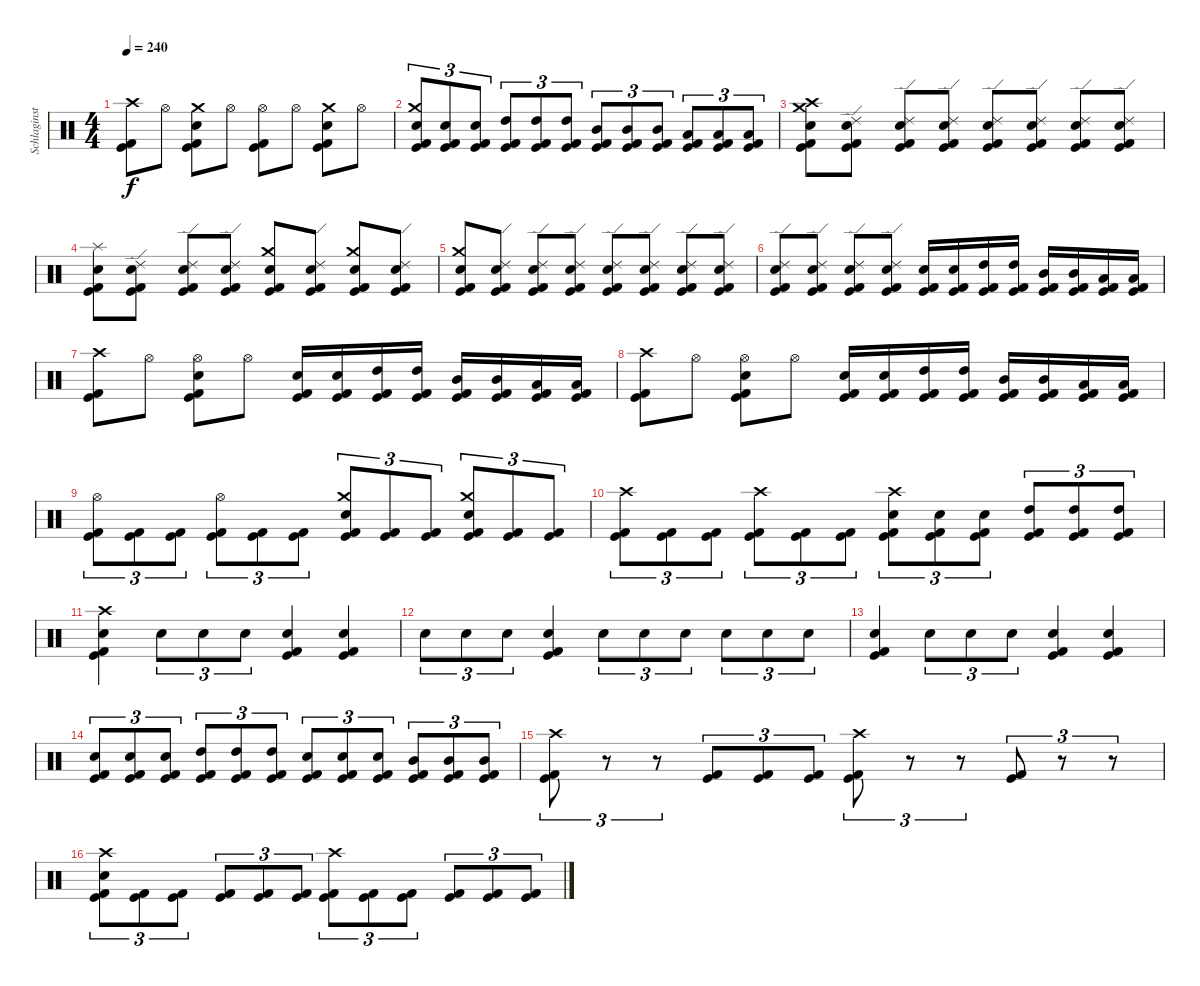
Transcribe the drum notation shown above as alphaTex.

\track ("Schlaginstrumente - Auswahl" "Schlaginst") {instrument percussion}
\staff {score}
\articulation defaults
\ts (4 4)
\tempo 240
\clef neutral
\ks c
("Crash high (hit)" "Kick (hit)" "Kick (hit) 2").8{dy f} "Hi-Hat (open)".8 ("Crash medium (hit)" "Electric Snare (hit)" "Kick (hit)" "Kick (hit) 2").8 "Hi-Hat (open)".8 ("Hi-Hat (open)" "Kick (hit)" "Kick (hit) 2").8 "Hi-Hat (open)".8 ("Crash medium (hit)" "Electric Snare (hit)" "Kick (hit)" "Kick (hit) 2").8 "Hi-Hat (open)".8 |
("Crash medium (hit)" "Electric Snare (hit)" "Kick (hit)" "Kick (hit) 2").8{tu (3 2)} ("Electric Snare (hit)" "Kick (hit)" "Kick (hit) 2").8{tu (3 2)} ("Electric Snare (hit)" "Kick (hit)" "Kick (hit) 2").8{tu (3 2)} ("High Tom (hit)" "Kick (hit)" "Kick (hit) 2").8{tu (3 2)} ("High Tom (hit)" "Kick (hit)" "Kick (hit) 2").8{tu (3 2)} ("High Tom (hit)" "Kick (hit)" "Kick (hit) 2").8{tu (3 2)} ("Mid Tom (hit)" "Kick (hit)" "Kick (hit) 2").8{tu (3 2)} ("Mid Tom (hit)" "Kick (hit)" "Kick (hit) 2").8{tu (3 2)} ("Mid Tom (hit)" "Kick (hit)" "Kick (hit) 2").8{tu (3 2)} ("Low Tom (hit)" "Kick (hit)" "Kick (hit) 2").8{tu (3 2)} ("Low Tom (hit)" "Kick (hit)" "Kick (hit) 2").8{tu (3 2)} ("Low Tom (hit)" "Kick (hit)" "Kick (hit) 2").8{tu (3 2)} |
("Crash medium (hit)" "Crash high (hit)" "Electric Snare (hit)" "Kick (hit)" "Kick (hit) 2").8 ("Ride (edge) 2" "Electric Snare (hit)" "Kick (hit)" "Kick (hit) 2").8 ("Ride (edge) 2" "Electric Snare (hit)" "Kick (hit)" "Kick (hit) 2").8 ("Ride (edge) 2" "Electric Snare (hit)" "Kick (hit)" "Kick (hit) 2").8 ("Ride (edge) 2" "Electric Snare (hit)" "Kick (hit)" "Kick (hit) 2").8 ("Ride (edge) 2" "Electric Snare (hit)" "Kick (hit)" "Kick (hit) 2").8 ("Ride (edge) 2" "Electric Snare (hit)" "Kick (hit)" "Kick (hit) 2").8 ("Ride (edge) 2" "Electric Snare (hit)" "Kick (hit)" "Kick (hit) 2").8 |
("Splash (hit)" "Electric Snare (hit)" "Kick (hit)" "Kick (hit) 2").8 ("Ride (edge) 2" "Electric Snare (hit)" "Kick (hit)" "Kick (hit) 2").8 ("Ride (edge) 2" "Electric Snare (hit)" "Kick (hit)" "Kick (hit) 2").8 ("Ride (edge) 2" "Electric Snare (hit)" "Kick (hit)" "Kick (hit) 2").8 ("Crash medium (hit)" "Electric Snare (hit)" "Kick (hit)" "Kick (hit) 2").8 ("Ride (edge) 2" "Electric Snare (hit)" "Kick (hit)" "Kick (hit) 2").8 ("Crash medium (hit)" "Electric Snare (hit)" "Kick (hit)" "Kick (hit) 2").8 ("Ride (edge) 2" "Electric Snare (hit)" "Kick (hit)" "Kick (hit) 2").8 |
("Crash medium (hit)" "Electric Snare (hit)" "Kick (hit)" "Kick (hit) 2").8 ("Ride (edge) 2" "Electric Snare (hit)" "Kick (hit)" "Kick (hit) 2").8 ("Ride (edge) 2" "Electric Snare (hit)" "Kick (hit)" "Kick (hit) 2").8 ("Ride (edge) 2" "Electric Snare (hit)" "Kick (hit)" "Kick (hit) 2").8 ("Ride (edge) 2" "Electric Snare (hit)" "Kick (hit)" "Kick (hit) 2").8 ("Ride (edge) 2" "Electric Snare (hit)" "Kick (hit)" "Kick (hit) 2").8 ("Ride (edge) 2" "Electric Snare (hit)" "Kick (hit)" "Kick (hit) 2").8 ("Ride (edge) 2" "Electric Snare (hit)" "Kick (hit)" "Kick (hit) 2").8 |
("Ride (edge) 2" "Electric Snare (hit)" "Kick (hit)" "Kick (hit) 2").8 ("Ride (edge) 2" "Electric Snare (hit)" "Kick (hit)" "Kick (hit) 2").8 ("Ride (edge) 2" "Electric Snare (hit)" "Kick (hit)" "Kick (hit) 2").8 ("Ride (edge) 2" "Electric Snare (hit)" "Kick (hit)" "Kick (hit) 2").8 ("Electric Snare (hit)" "Kick (hit)" "Kick (hit) 2").16 ("Electric Snare (hit)" "Kick (hit)" "Kick (hit) 2").16 ("High Tom (hit)" "Kick (hit)" "Kick (hit) 2").16 ("High Tom (hit)" "Kick (hit)" "Kick (hit) 2").16 ("Mid Tom (hit)" "Kick (hit)" "Kick (hit) 2").16 ("Mid Tom (hit)" "Kick (hit)" "Kick (hit) 2").16 ("Low Tom (hit)" "Kick (hit)" "Kick (hit) 2").16 ("Low Tom (hit)" "Kick (hit)" "Kick (hit) 2").16 |
("Crash high (hit)" "Kick (hit)" "Kick (hit) 2").8 "Hi-Hat (open)".8 ("Hi-Hat (open)" "Electric Snare (hit)" "Kick (hit)" "Kick (hit) 2").8 "Hi-Hat (open)".8 ("Electric Snare (hit)" "Kick (hit)" "Kick (hit) 2").16 ("Electric Snare (hit)" "Kick (hit)" "Kick (hit) 2").16 ("High Tom (hit)" "Kick (hit)" "Kick (hit) 2").16 ("High Tom (hit)" "Kick (hit)" "Kick (hit) 2").16 ("Mid Tom (hit)" "Kick (hit)" "Kick (hit) 2").16 ("Mid Tom (hit)" "Kick (hit)" "Kick (hit) 2").16 ("Low Tom (hit)" "Kick (hit)" "Kick (hit) 2").16 ("Low Tom (hit)" "Kick (hit)" "Kick (hit) 2").16 |
("Crash high (hit)" "Kick (hit)" "Kick (hit) 2").8 "Hi-Hat (open)".8 ("Hi-Hat (open)" "Electric Snare (hit)" "Kick (hit)" "Kick (hit) 2").8 "Hi-Hat (open)".8 ("Electric Snare (hit)" "Kick (hit)" "Kick (hit) 2").16 ("Electric Snare (hit)" "Kick (hit)" "Kick (hit) 2").16 ("High Tom (hit)" "Kick (hit)" "Kick (hit) 2").16 ("High Tom (hit)" "Kick (hit)" "Kick (hit) 2").16 ("Mid Tom (hit)" "Kick (hit)" "Kick (hit) 2").16 ("Mid Tom (hit)" "Kick (hit)" "Kick (hit) 2").16 ("Low Tom (hit)" "Kick (hit)" "Kick (hit) 2").16 ("Low Tom (hit)" "Kick (hit)" "Kick (hit) 2").16 |
("Hi-Hat (open)" "Kick (hit)" "Kick (hit) 2").8{tu (3 2)} ("Kick (hit)" "Kick (hit) 2").8{tu (3 2)} ("Kick (hit)" "Kick (hit) 2").8{tu (3 2)} ("Hi-Hat (open)" "Kick (hit)" "Kick (hit) 2").8{tu (3 2)} ("Kick (hit)" "Kick (hit) 2").8{tu (3 2)} ("Kick (hit)" "Kick (hit) 2").8{tu (3 2)} ("Crash medium (hit)" "Electric Snare (hit)" "Kick (hit)" "Kick (hit) 2").8{tu (3 2)} ("Kick (hit)" "Kick (hit) 2").8{tu (3 2)} ("Kick (hit)" "Kick (hit) 2").8{tu (3 2)} ("Crash medium (hit)" "Electric Snare (hit)" "Kick (hit)" "Kick (hit) 2").8{tu (3 2)} ("Kick (hit)" "Kick (hit) 2").8{tu (3 2)} ("Kick (hit)" "Kick (hit) 2").8{tu (3 2)} |
("Crash high (hit)" "Kick (hit)" "Kick (hit) 2").8{tu (3 2)} ("Kick (hit)" "Kick (hit) 2").8{tu (3 2)} ("Kick (hit)" "Kick (hit) 2").8{tu (3 2)} ("Crash high (hit)" "Kick (hit)" "Kick (hit) 2").8{tu (3 2)} ("Kick (hit)" "Kick (hit) 2").8{tu (3 2)} ("Kick (hit)" "Kick (hit) 2").8{tu (3 2)} ("Crash high (hit)" "Electric Snare (hit)" "Kick (hit)" "Kick (hit) 2").8{tu (3 2)} ("Electric Snare (hit)" "Kick (hit)" "Kick (hit) 2").8{tu (3 2)} ("Electric Snare (hit)" "Kick (hit)" "Kick (hit) 2").8{tu (3 2)} ("High Tom (hit)" "Kick (hit)" "Kick (hit) 2").8{tu (3 2)} ("High Tom (hit)" "Kick (hit)" "Kick (hit) 2").8{tu (3 2)} ("High Tom (hit)" "Kick (hit)" "Kick (hit) 2").8{tu (3 2)} |
("Crash high (hit)" "Electric Snare (hit)" "Kick (hit)" "Kick (hit) 2").4 "Electric Snare (hit)".8{tu (3 2)} "Electric Snare (hit)".8{tu (3 2)} "Electric Snare (hit)".8{tu (3 2)} ("Electric Snare (hit)" "Kick (hit)" "Kick (hit) 2").4 ("Electric Snare (hit)" "Kick (hit)" "Kick (hit) 2").4 |
"Electric Snare (hit)".8{tu (3 2)} "Electric Snare (hit)".8{tu (3 2)} "Electric Snare (hit)".8{tu (3 2)} ("Electric Snare (hit)" "Kick (hit)" "Kick (hit) 2").4 "Electric Snare (hit)".8{tu (3 2)} "Electric Snare (hit)".8{tu (3 2)} "Electric Snare (hit)".8{tu (3 2)} "Electric Snare (hit)".8{tu (3 2)} "Electric Snare (hit)".8{tu (3 2)} "Electric Snare (hit)".8{tu (3 2)} |
("Electric Snare (hit)" "Kick (hit)" "Kick (hit) 2").4 "Electric Snare (hit)".8{tu (3 2)} "Electric Snare (hit)".8{tu (3 2)} "Electric Snare (hit)".8{tu (3 2)} ("Electric Snare (hit)" "Kick (hit)" "Kick (hit) 2").4 ("Electric Snare (hit)" "Kick (hit)" "Kick (hit) 2").4 |
("Electric Snare (hit)" "Kick (hit)" "Kick (hit) 2").8{tu (3 2)} ("Electric Snare (hit)" "Kick (hit)" "Kick (hit) 2").8{tu (3 2)} ("Electric Snare (hit)" "Kick (hit)" "Kick (hit) 2").8{tu (3 2)} ("High Tom (hit)" "Kick (hit)" "Kick (hit) 2").8{tu (3 2)} ("High Tom (hit)" "Kick (hit)" "Kick (hit) 2").8{tu (3 2)} ("High Tom (hit)" "Kick (hit)" "Kick (hit) 2").8{tu (3 2)} ("Electric Snare (hit)" "Kick (hit)" "Kick (hit) 2").8{tu (3 2)} ("Electric Snare (hit)" "Kick (hit)" "Kick (hit) 2").8{tu (3 2)} ("Electric Snare (hit)" "Kick (hit)" "Kick (hit) 2").8{tu (3 2)} ("Mid Tom (hit)" "Kick (hit)" "Kick (hit) 2").8{tu (3 2)} ("Mid Tom (hit)" "Kick (hit)" "Kick (hit) 2").8{tu (3 2)} ("Mid Tom (hit)" "Kick (hit)" "Kick (hit) 2").8{tu (3 2)} |
("Crash high (hit)" "Kick (hit)" "Kick (hit) 2").8{tu (3 2)} r.8{tu (3 2)} r.8{tu (3 2)} ("Kick (hit)" "Kick (hit) 2").8{tu (3 2)} ("Kick (hit)" "Kick (hit) 2").8{tu (3 2)} ("Kick (hit)" "Kick (hit) 2").8{tu (3 2)} ("Crash high (hit)" "Kick (hit)" "Kick (hit) 2").8{tu (3 2)} r.8{tu (3 2)} r.8{tu (3 2)} ("Kick (hit)" "Kick (hit) 2").8{tu (3 2)} r.8{tu (3 2)} r.8{tu (3 2)} |
("Crash high (hit)" "Electric Snare (hit)" "Kick (hit)" "Kick (hit) 2").8{tu (3 2)} ("Kick (hit)" "Kick (hit) 2").8{tu (3 2)} ("Kick (hit)" "Kick (hit) 2").8{tu (3 2)} ("Kick (hit)" "Kick (hit) 2").8{tu (3 2)} ("Kick (hit)" "Kick (hit) 2").8{tu (3 2)} ("Kick (hit)" "Kick (hit) 2").8{tu (3 2)} ("Crash high (hit)" "Kick (hit)" "Kick (hit) 2").8{tu (3 2)} ("Kick (hit)" "Kick (hit) 2").8{tu (3 2)} ("Kick (hit)" "Kick (hit) 2").8{tu (3 2)} ("Kick (hit)" "Kick (hit) 2").8{tu (3 2)} ("Kick (hit)" "Kick (hit) 2").8{tu (3 2)} ("Kick (hit)" "Kick (hit) 2").8{tu (3 2)}
